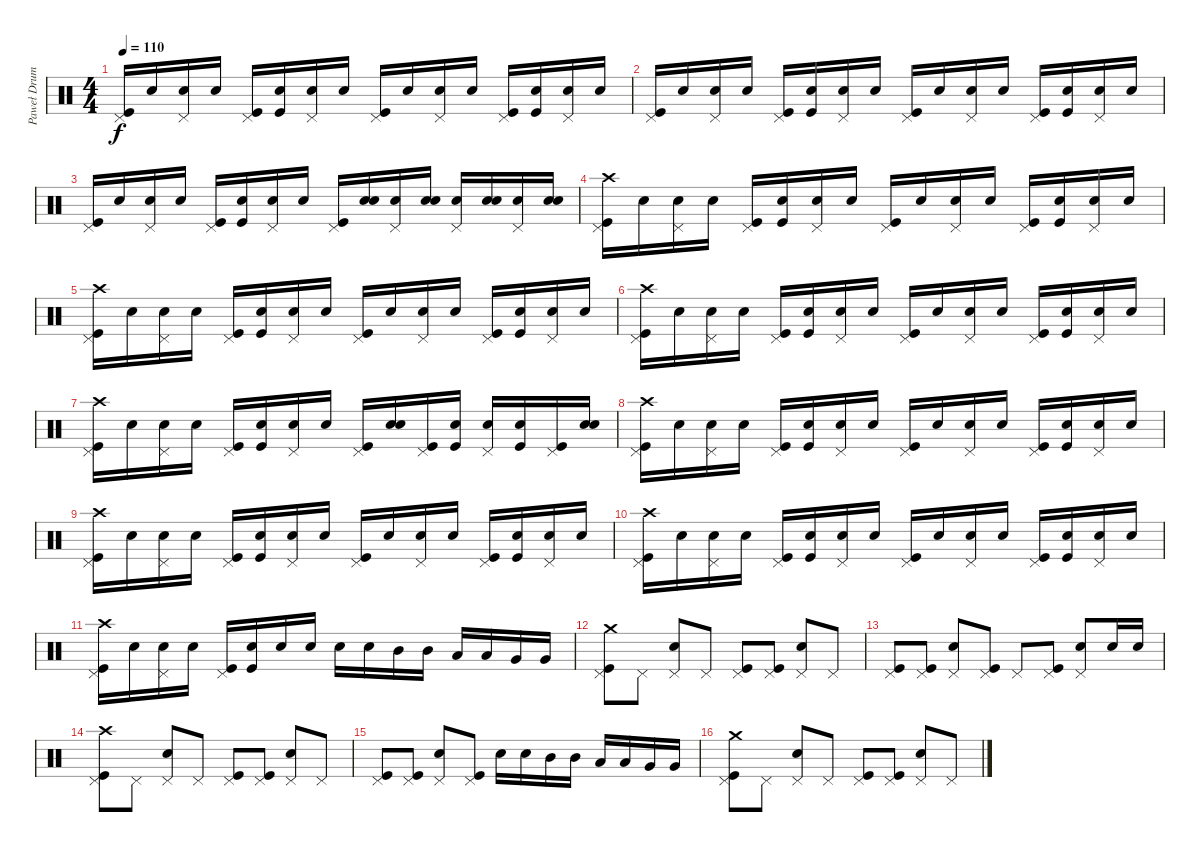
\track ("Paweł Drums" "Paweł Drum") {instrument percussion}
\staff {score}
\articulation defaults
\ts (4 4)
\tempo 110
\clef neutral
\ks c
("Pedal Hi-Hat (hit)" "Kick (hit)").16{dy f} "Snare (hit)".16 ("Pedal Hi-Hat (hit)" "Snare (hit) 2").16 "Snare (hit)".16 ("Pedal Hi-Hat (hit)" "Kick (hit)").16 ("Snare (hit)" "Kick (hit)").16 ("Pedal Hi-Hat (hit)" "Snare (hit) 2").16 "Snare (hit)".16 ("Pedal Hi-Hat (hit)" "Kick (hit)").16 "Snare (hit)".16 ("Pedal Hi-Hat (hit)" "Snare (hit) 2").16 "Snare (hit)".16 ("Pedal Hi-Hat (hit)" "Kick (hit)").16 ("Snare (hit)" "Kick (hit)").16 ("Pedal Hi-Hat (hit)" "Snare (hit) 2").16 "Snare (hit)".16 |
("Pedal Hi-Hat (hit)" "Kick (hit)").16 "Snare (hit)".16 ("Pedal Hi-Hat (hit)" "Snare (hit) 2").16 "Snare (hit)".16 ("Pedal Hi-Hat (hit)" "Kick (hit)").16 ("Snare (hit)" "Kick (hit)").16 ("Pedal Hi-Hat (hit)" "Snare (hit) 2").16 "Snare (hit)".16 ("Pedal Hi-Hat (hit)" "Kick (hit)").16 "Snare (hit)".16 ("Pedal Hi-Hat (hit)" "Snare (hit) 2").16 "Snare (hit)".16 ("Pedal Hi-Hat (hit)" "Kick (hit)").16 ("Snare (hit)" "Kick (hit)").16 ("Pedal Hi-Hat (hit)" "Snare (hit) 2").16 "Snare (hit)".16 |
("Pedal Hi-Hat (hit)" "Kick (hit)").16 "Snare (hit)".16 ("Pedal Hi-Hat (hit)" "Snare (hit) 2").16 "Snare (hit)".16 ("Pedal Hi-Hat (hit)" "Kick (hit)").16 ("Snare (hit)" "Kick (hit)").16 ("Pedal Hi-Hat (hit)" "Snare (hit) 2").16 "Snare (hit)".16 ("Pedal Hi-Hat (hit)" "Kick (hit)").16 ("Snare (hit)" "Snare (hit) 2").16 ("Pedal Hi-Hat (hit)" "Snare (hit) 2").16 ("Snare (hit)" "Snare (hit) 2").16 ("Pedal Hi-Hat (hit)" "Snare (hit) 2").16 ("Snare (hit)" "Snare (hit) 2").16 ("Pedal Hi-Hat (hit)" "Snare (hit) 2").16 ("Snare (hit)" "Snare (hit) 2").16 |
("Pedal Hi-Hat (hit)" "Crash high (hit)" "Kick (hit)").16 "Snare (hit)".16 ("Pedal Hi-Hat (hit)" "Snare (hit) 2").16 "Snare (hit)".16 ("Pedal Hi-Hat (hit)" "Kick (hit)").16 ("Snare (hit)" "Kick (hit)").16 ("Pedal Hi-Hat (hit)" "Snare (hit) 2").16 "Snare (hit)".16 ("Pedal Hi-Hat (hit)" "Kick (hit)").16 "Snare (hit)".16 ("Pedal Hi-Hat (hit)" "Snare (hit) 2").16 "Snare (hit)".16 ("Pedal Hi-Hat (hit)" "Kick (hit)").16 ("Snare (hit)" "Kick (hit)").16 ("Pedal Hi-Hat (hit)" "Snare (hit) 2").16 "Snare (hit)".16 |
("Pedal Hi-Hat (hit)" "Crash high (hit)" "Kick (hit)").16 "Snare (hit)".16 ("Pedal Hi-Hat (hit)" "Snare (hit) 2").16 "Snare (hit)".16 ("Pedal Hi-Hat (hit)" "Kick (hit)").16 ("Snare (hit)" "Kick (hit)").16 ("Pedal Hi-Hat (hit)" "Snare (hit) 2").16 "Snare (hit)".16 ("Pedal Hi-Hat (hit)" "Kick (hit)").16 "Snare (hit)".16 ("Pedal Hi-Hat (hit)" "Snare (hit) 2").16 "Snare (hit)".16 ("Pedal Hi-Hat (hit)" "Kick (hit)").16 ("Snare (hit)" "Kick (hit)").16 ("Pedal Hi-Hat (hit)" "Snare (hit) 2").16 "Snare (hit)".16 |
("Pedal Hi-Hat (hit)" "Crash high (hit)" "Kick (hit)").16 "Snare (hit)".16 ("Pedal Hi-Hat (hit)" "Snare (hit) 2").16 "Snare (hit)".16 ("Pedal Hi-Hat (hit)" "Kick (hit)").16 ("Snare (hit)" "Kick (hit)").16 ("Pedal Hi-Hat (hit)" "Snare (hit) 2").16 "Snare (hit)".16 ("Pedal Hi-Hat (hit)" "Kick (hit)").16 "Snare (hit)".16 ("Pedal Hi-Hat (hit)" "Snare (hit) 2").16 "Snare (hit)".16 ("Pedal Hi-Hat (hit)" "Kick (hit)").16 ("Snare (hit)" "Kick (hit)").16 ("Pedal Hi-Hat (hit)" "Snare (hit) 2").16 "Snare (hit)".16 |
("Pedal Hi-Hat (hit)" "Crash high (hit)" "Kick (hit)").16 "Snare (hit)".16 ("Pedal Hi-Hat (hit)" "Snare (hit) 2").16 "Snare (hit)".16 ("Pedal Hi-Hat (hit)" "Kick (hit)").16 ("Snare (hit)" "Kick (hit)").16 ("Pedal Hi-Hat (hit)" "Snare (hit) 2").16 "Snare (hit)".16 ("Pedal Hi-Hat (hit)" "Kick (hit)").16 ("Snare (hit)" "Snare (hit) 2").16 ("Pedal Hi-Hat (hit)" "Kick (hit)").16 ("Snare (hit)" "Kick (hit)").16 ("Pedal Hi-Hat (hit)" "Snare (hit) 2").16 ("Snare (hit)" "Kick (hit)").16 ("Pedal Hi-Hat (hit)" "Kick (hit)").16 ("Snare (hit)" "Snare (hit) 2").16 |
("Pedal Hi-Hat (hit)" "Crash high (hit)" "Kick (hit)").16 "Snare (hit)".16 ("Pedal Hi-Hat (hit)" "Snare (hit) 2").16 "Snare (hit)".16 ("Pedal Hi-Hat (hit)" "Kick (hit)").16 ("Snare (hit)" "Kick (hit)").16 ("Pedal Hi-Hat (hit)" "Snare (hit) 2").16 "Snare (hit)".16 ("Pedal Hi-Hat (hit)" "Kick (hit)").16 "Snare (hit)".16 ("Pedal Hi-Hat (hit)" "Snare (hit) 2").16 "Snare (hit)".16 ("Pedal Hi-Hat (hit)" "Kick (hit)").16 ("Snare (hit)" "Kick (hit)").16 ("Pedal Hi-Hat (hit)" "Snare (hit) 2").16 "Snare (hit)".16 |
("Pedal Hi-Hat (hit)" "Crash high (hit)" "Kick (hit)").16 "Snare (hit)".16 ("Pedal Hi-Hat (hit)" "Snare (hit) 2").16 "Snare (hit)".16 ("Pedal Hi-Hat (hit)" "Kick (hit)").16 ("Snare (hit)" "Kick (hit)").16 ("Pedal Hi-Hat (hit)" "Snare (hit) 2").16 "Snare (hit)".16 ("Pedal Hi-Hat (hit)" "Kick (hit)").16 "Snare (hit)".16 ("Pedal Hi-Hat (hit)" "Snare (hit) 2").16 "Snare (hit)".16 ("Pedal Hi-Hat (hit)" "Kick (hit)").16 ("Snare (hit)" "Kick (hit)").16 ("Pedal Hi-Hat (hit)" "Snare (hit) 2").16 "Snare (hit)".16 |
("Pedal Hi-Hat (hit)" "Crash high (hit)" "Kick (hit)").16 "Snare (hit)".16 ("Pedal Hi-Hat (hit)" "Snare (hit) 2").16 "Snare (hit)".16 ("Pedal Hi-Hat (hit)" "Kick (hit)").16 ("Snare (hit)" "Kick (hit)").16 ("Pedal Hi-Hat (hit)" "Snare (hit) 2").16 "Snare (hit)".16 ("Pedal Hi-Hat (hit)" "Kick (hit)").16 "Snare (hit)".16 ("Pedal Hi-Hat (hit)" "Snare (hit) 2").16 "Snare (hit)".16 ("Pedal Hi-Hat (hit)" "Kick (hit)").16 ("Snare (hit)" "Kick (hit)").16 ("Pedal Hi-Hat (hit)" "Snare (hit) 2").16 "Snare (hit)".16 |
("Pedal Hi-Hat (hit)" "Crash high (hit)" "Kick (hit)").16 "Snare (hit)".16 ("Pedal Hi-Hat (hit)" "Snare (hit) 2").16 "Snare (hit)".16 ("Pedal Hi-Hat (hit)" "Kick (hit)").16 ("Snare (hit)" "Kick (hit)").16 "Snare (hit) 2".16 "Snare (hit) 2".16 "Snare (hit) 2".16 "Snare (hit) 2".16 "Mid Tom (hit)".16 "Mid Tom (hit)".16 "Low Tom (hit)".16 "Low Tom (hit)".16 "Very Low Tom (hit)".16 "Very Low Tom (hit)".16 |
("Pedal Hi-Hat (hit)" "Crash medium (hit)" "Kick (hit)").8 "Pedal Hi-Hat (hit)".8 ("Pedal Hi-Hat (hit)" "Snare (hit) 2").8 "Pedal Hi-Hat (hit)".8 ("Pedal Hi-Hat (hit)" "Kick (hit)").8 ("Pedal Hi-Hat (hit)" "Kick (hit)").8 ("Pedal Hi-Hat (hit)" "Snare (hit) 2").8 "Pedal Hi-Hat (hit)".8 |
("Pedal Hi-Hat (hit)" "Kick (hit)").8 ("Pedal Hi-Hat (hit)" "Kick (hit)").8 ("Pedal Hi-Hat (hit)" "Snare (hit) 2").8 ("Pedal Hi-Hat (hit)" "Kick (hit)").8 "Pedal Hi-Hat (hit)".8 ("Pedal Hi-Hat (hit)" "Kick (hit)").8 ("Pedal Hi-Hat (hit)" "Snare (hit) 2").8 "Snare (hit) 2".16 "Snare (hit) 2".16 |
("Pedal Hi-Hat (hit)" "Crash high (hit)" "Kick (hit)").8 "Pedal Hi-Hat (hit)".8 ("Pedal Hi-Hat (hit)" "Snare (hit) 2").8 "Pedal Hi-Hat (hit)".8 ("Pedal Hi-Hat (hit)" "Kick (hit)").8 ("Pedal Hi-Hat (hit)" "Kick (hit)").8 ("Pedal Hi-Hat (hit)" "Snare (hit) 2").8 "Pedal Hi-Hat (hit)".8 |
("Pedal Hi-Hat (hit)" "Kick (hit)").8 ("Pedal Hi-Hat (hit)" "Kick (hit)").8 ("Pedal Hi-Hat (hit)" "Snare (hit) 2").8 ("Pedal Hi-Hat (hit)" "Kick (hit)").8 "Snare (hit) 2".16 "Snare (hit) 2".16 "Mid Tom (hit)".16 "Mid Tom (hit)".16 "Low Tom (hit)".16 "Low Tom (hit)".16 "Very Low Tom (hit)".16 "Very Low Tom (hit)".16 |
("Pedal Hi-Hat (hit)" "Crash medium (hit)" "Kick (hit)").8 "Pedal Hi-Hat (hit)".8 ("Pedal Hi-Hat (hit)" "Snare (hit) 2").8 "Pedal Hi-Hat (hit)".8 ("Pedal Hi-Hat (hit)" "Kick (hit)").8 ("Pedal Hi-Hat (hit)" "Kick (hit)").8 ("Pedal Hi-Hat (hit)" "Snare (hit) 2").8 "Pedal Hi-Hat (hit)".8
